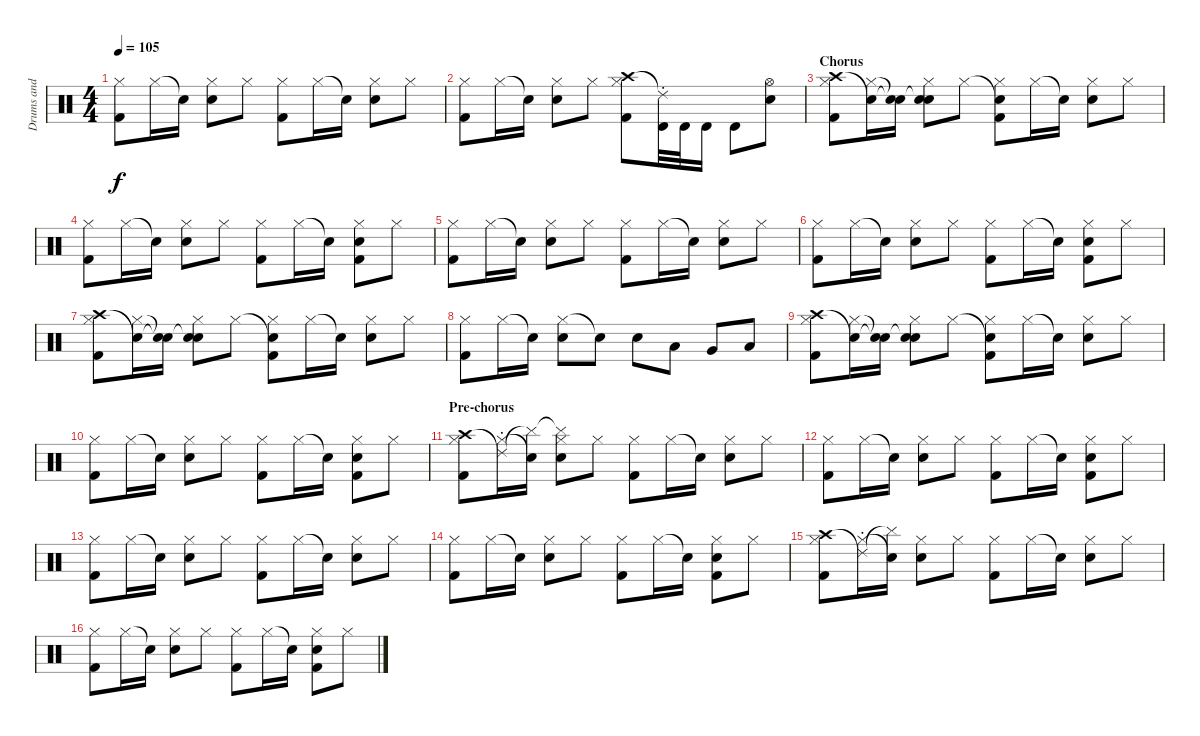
\track ("Drums and scratch" "Drums and ") {instrument percussion}
\staff {score}
\articulation defaults
\ts (4 4)
\tempo 105
\clef neutral
\ks c
("Hi-Hat (closed)" "Kick (hit) 2").8{dy f} "Hi-Hat (closed)".16 "Snare (hit)"{t}.16 ("Hi-Hat (closed)" "Electric Snare (hit)").8 "Hi-Hat (closed)".8 ("Hi-Hat (closed)" "Kick (hit) 2").8 "Hi-Hat (closed)".16 "Snare (hit)"{t}.16 ("Hi-Hat (closed)" "Electric Snare (hit)").8 "Hi-Hat (closed)".8 |
("Hi-Hat (closed)" "Kick (hit) 2").8 "Hi-Hat (closed)".16 "Snare (hit)"{t}.16 ("Hi-Hat (closed)" "Electric Snare (hit)").8 "Hi-Hat (closed)".8 ("Crash high (hit)" "Hi-Hat (closed)" "Kick (hit) 2").8 ("Ride (choke) 2"{t} "Timbale high (hit)").32 "Timbale high (hit)".32 "Timbale high (hit)".16 "Timbale high (hit)".8 ("Hi-Hat (open)" "Electric Snare (hit)").8 |
\section ("" "Chorus")
("Crash high (hit)" "Hi-Hat (closed)" "Kick (hit) 2").8 ("Snare (hit)"{t} "Hi-Hat (closed)").16 ("Snare (hit)"{t} "Snare (hit)"{t}).16 ("Snare (hit)"{t} "Hi-Hat (closed)" "Electric Snare (hit)").8 "Hi-Hat (closed)".8 ("Snare (hit)"{t} "Hi-Hat (closed)" "Kick (hit) 2").8 "Hi-Hat (closed)".16 "Snare (hit)"{t}.16 ("Hi-Hat (closed)" "Electric Snare (hit)").8 "Hi-Hat (closed)".8 |
("Hi-Hat (closed)" "Kick (hit) 2").8 "Hi-Hat (closed)".16 "Snare (hit)"{t}.16 ("Hi-Hat (closed)" "Electric Snare (hit)").8 "Hi-Hat (closed)".8 ("Hi-Hat (closed)" "Kick (hit) 2").8 "Hi-Hat (closed)".16 "Snare (hit)"{t}.16 ("Hi-Hat (closed)" "Electric Snare (hit)" "Kick (hit) 2").8 "Hi-Hat (closed)".8 |
("Hi-Hat (closed)" "Kick (hit) 2").8 "Hi-Hat (closed)".16 "Snare (hit)"{t}.16 ("Hi-Hat (closed)" "Electric Snare (hit)").8 "Hi-Hat (closed)".8 ("Hi-Hat (closed)" "Kick (hit) 2").8 "Hi-Hat (closed)".16 "Snare (hit)"{t}.16 ("Hi-Hat (closed)" "Electric Snare (hit)").8 "Hi-Hat (closed)".8 |
("Hi-Hat (closed)" "Kick (hit) 2").8 "Hi-Hat (closed)".16 "Snare (hit)"{t}.16 ("Hi-Hat (closed)" "Electric Snare (hit)").8 "Hi-Hat (closed)".8 ("Hi-Hat (closed)" "Kick (hit) 2").8 "Hi-Hat (closed)".16 "Snare (hit)"{t}.16 ("Hi-Hat (closed)" "Electric Snare (hit)" "Kick (hit) 2").8 "Hi-Hat (closed)".8 |
("Crash high (hit)" "Hi-Hat (closed)" "Kick (hit) 2").8 ("Snare (hit)"{t} "Hi-Hat (closed)").16 ("Snare (hit)"{t} "Snare (hit)"{t}).16 ("Snare (hit)"{t} "Hi-Hat (closed)" "Electric Snare (hit)").8 "Hi-Hat (closed)".8 ("Snare (hit)"{t} "Hi-Hat (closed)" "Kick (hit) 2").8 "Hi-Hat (closed)".16 "Snare (hit)"{t}.16 ("Hi-Hat (closed)" "Electric Snare (hit)").8 "Hi-Hat (closed)".8 |
("Hi-Hat (closed)" "Kick (hit) 2").8 "Hi-Hat (closed)".16 "Snare (hit)"{t}.16 ("Hi-Hat (closed)" "Electric Snare (hit)").8 "Snare (hit)"{t}.8 "Electric Snare (hit)".8 "Low Tom (hit)".8 "Very Low Tom (hit)".8 "Low Floor Tom (hit)".8 |
("Crash high (hit)" "Hi-Hat (closed)" "Kick (hit) 2").8 ("Snare (hit)"{t} "Hi-Hat (closed)").16 ("Snare (hit)"{t} "Snare (hit)"{t}).16 ("Snare (hit)"{t} "Hi-Hat (closed)" "Electric Snare (hit)").8 "Hi-Hat (closed)".8 ("Snare (hit)"{t} "Hi-Hat (closed)" "Kick (hit) 2").8 "Hi-Hat (closed)".16 "Snare (hit)"{t}.16 ("Hi-Hat (closed)" "Electric Snare (hit)").8 "Hi-Hat (closed)".8 |
("Hi-Hat (closed)" "Kick (hit) 2").8 "Hi-Hat (closed)".16 "Snare (hit)"{t}.16 ("Hi-Hat (closed)" "Electric Snare (hit)").8 "Hi-Hat (closed)".8 ("Hi-Hat (closed)" "Kick (hit) 2").8 "Hi-Hat (closed)".16 "Snare (hit)"{t}.16 ("Hi-Hat (closed)" "Electric Snare (hit)" "Kick (hit) 2").8 "Hi-Hat (closed)".8 |
\section ("" "Pre-chorus")
("Crash high (hit)" "Hi-Hat (closed)" "Kick (hit) 2").8 ("Ride (choke) 2"{t} "Hi-Hat (closed)").16 ("Cymbal (hit)"{t} "Snare (hit)"{t}).16 ("Cymbal (hit)"{t} "Hi-Hat (closed)" "Electric Snare (hit)").8 "Hi-Hat (closed)".8 ("Hi-Hat (closed)" "Kick (hit) 2").8 "Hi-Hat (closed)".16 "Snare (hit)"{t}.16 ("Hi-Hat (closed)" "Electric Snare (hit)").8 "Hi-Hat (closed)".8 |
("Hi-Hat (closed)" "Kick (hit) 2").8 "Hi-Hat (closed)".16 "Snare (hit)"{t}.16 ("Hi-Hat (closed)" "Electric Snare (hit)").8 "Hi-Hat (closed)".8 ("Hi-Hat (closed)" "Kick (hit) 2").8 "Hi-Hat (closed)".16 "Snare (hit)"{t}.16 ("Hi-Hat (closed)" "Electric Snare (hit)" "Kick (hit) 2").8 "Hi-Hat (closed)".8 |
("Hi-Hat (closed)" "Kick (hit) 2").8 "Hi-Hat (closed)".16 "Snare (hit)"{t}.16 ("Hi-Hat (closed)" "Electric Snare (hit)").8 "Hi-Hat (closed)".8 ("Hi-Hat (closed)" "Kick (hit) 2").8 "Hi-Hat (closed)".16 "Snare (hit)"{t}.16 ("Hi-Hat (closed)" "Electric Snare (hit)").8 "Hi-Hat (closed)".8 |
("Hi-Hat (closed)" "Kick (hit) 2").8 "Hi-Hat (closed)".16 "Snare (hit)"{t}.16 ("Hi-Hat (closed)" "Electric Snare (hit)").8 "Hi-Hat (closed)".8 ("Hi-Hat (closed)" "Kick (hit) 2").8 "Hi-Hat (closed)".16 "Snare (hit)"{t}.16 ("Hi-Hat (closed)" "Electric Snare (hit)" "Kick (hit) 2").8 "Hi-Hat (closed)".8 |
("Crash high (hit)" "Hi-Hat (closed)" "Kick (hit) 2").8 ("Ride (choke) 2"{t} "Hi-Hat (closed)").16 ("Cymbal (hit)"{t} "Snare (hit)"{t}).16 ("Hi-Hat (closed)" "Electric Snare (hit)").8 "Hi-Hat (closed)".8 ("Hi-Hat (closed)" "Kick (hit) 2").8 "Hi-Hat (closed)".16 "Snare (hit)"{t}.16 ("Hi-Hat (closed)" "Electric Snare (hit)").8 "Hi-Hat (closed)".8 |
("Hi-Hat (closed)" "Kick (hit) 2").8 "Hi-Hat (closed)".16 "Snare (hit)"{t}.16 ("Hi-Hat (closed)" "Electric Snare (hit)").8 "Hi-Hat (closed)".8 ("Hi-Hat (closed)" "Kick (hit) 2").8 "Hi-Hat (closed)".16 "Snare (hit)"{t}.16 ("Hi-Hat (closed)" "Electric Snare (hit)" "Kick (hit) 2").8 "Hi-Hat (closed)".8
